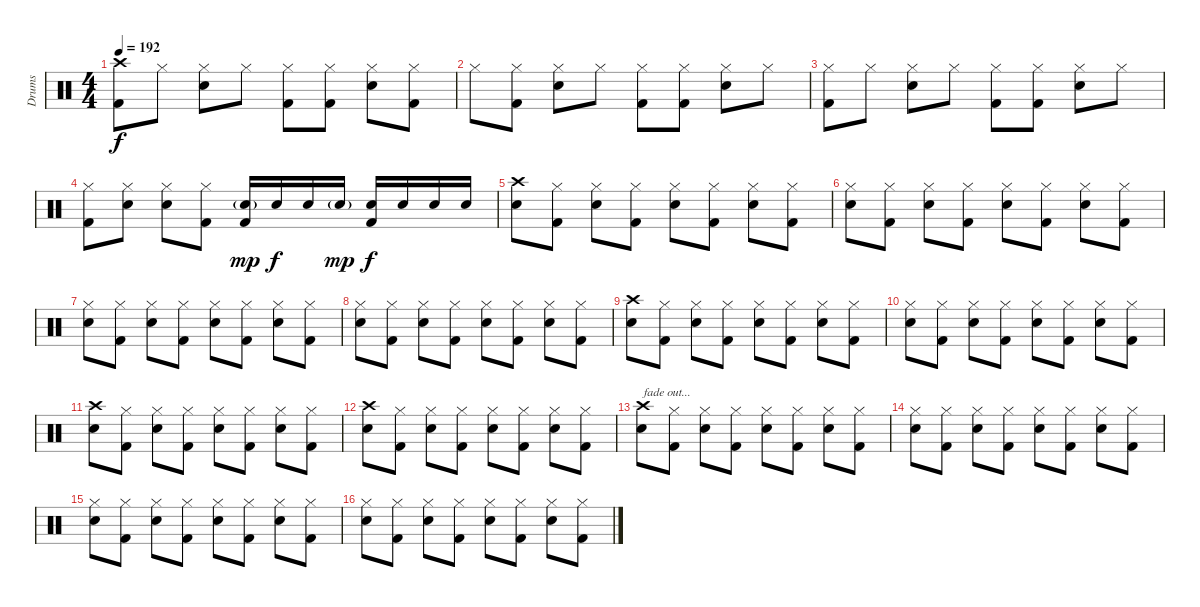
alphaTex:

\track ("Drums" "Drums") {instrument percussion}
\staff {score}
\articulation defaults
\ts (4 4)
\tempo 192
\clef neutral
\ks c
("Crash high (hit)" "Kick (hit) 2").8{dy f} "Hi-Hat (closed)".8 ("Hi-Hat (closed)" "Electric Snare (hit)").8 "Hi-Hat (closed)".8 ("Hi-Hat (closed)" "Kick (hit) 2").8 ("Hi-Hat (closed)" "Kick (hit) 2").8 ("Hi-Hat (closed)" "Electric Snare (hit)").8 ("Hi-Hat (closed)" "Kick (hit) 2").8 |
"Hi-Hat (closed)".8 ("Hi-Hat (closed)" "Kick (hit) 2").8 ("Hi-Hat (closed)" "Electric Snare (hit)").8 "Hi-Hat (closed)".8 ("Hi-Hat (closed)" "Kick (hit) 2").8 ("Hi-Hat (closed)" "Kick (hit) 2").8 ("Hi-Hat (closed)" "Electric Snare (hit)").8 "Hi-Hat (closed)".8 |
("Hi-Hat (closed)" "Kick (hit) 2").8 "Hi-Hat (closed)".8 ("Hi-Hat (closed)" "Electric Snare (hit)").8 "Hi-Hat (closed)".8 ("Hi-Hat (closed)" "Kick (hit) 2").8 ("Hi-Hat (closed)" "Kick (hit) 2").8 ("Hi-Hat (closed)" "Electric Snare (hit)").8 "Hi-Hat (closed)".8 |
("Hi-Hat (closed)" "Kick (hit) 2").8 ("Hi-Hat (closed)" "Electric Snare (hit)").8 ("Hi-Hat (closed)" "Electric Snare (hit)").8 ("Hi-Hat (closed)" "Kick (hit) 2").8 ("Electric Snare (hit)"{g} "Kick (hit) 2").16{dy mp} "Electric Snare (hit)".16{dy f} "Electric Snare (hit)".16 "Electric Snare (hit)"{g}.16{dy mp} ("Electric Snare (hit)" "Kick (hit) 2").16{dy f} "Electric Snare (hit)".16 "Electric Snare (hit)".16 "Electric Snare (hit)".16 |
("Crash high (hit)" "Electric Snare (hit)").8 ("Hi-Hat (closed)" "Kick (hit) 2").8 ("Hi-Hat (closed)" "Electric Snare (hit)").8 ("Hi-Hat (closed)" "Kick (hit) 2").8 ("Hi-Hat (closed)" "Electric Snare (hit)").8 ("Hi-Hat (closed)" "Kick (hit) 2").8 ("Hi-Hat (closed)" "Electric Snare (hit)").8 ("Hi-Hat (closed)" "Kick (hit) 2").8 |
("Hi-Hat (closed)" "Electric Snare (hit)").8 ("Hi-Hat (closed)" "Kick (hit) 2").8 ("Hi-Hat (closed)" "Electric Snare (hit)").8 ("Hi-Hat (closed)" "Kick (hit) 2").8 ("Hi-Hat (closed)" "Electric Snare (hit)").8 ("Hi-Hat (closed)" "Kick (hit) 2").8 ("Hi-Hat (closed)" "Electric Snare (hit)").8 ("Hi-Hat (closed)" "Kick (hit) 2").8 |
("Hi-Hat (closed)" "Electric Snare (hit)").8 ("Hi-Hat (closed)" "Kick (hit) 2").8 ("Hi-Hat (closed)" "Electric Snare (hit)").8 ("Hi-Hat (closed)" "Kick (hit) 2").8 ("Hi-Hat (closed)" "Electric Snare (hit)").8 ("Hi-Hat (closed)" "Kick (hit) 2").8 ("Hi-Hat (closed)" "Electric Snare (hit)").8 ("Hi-Hat (closed)" "Kick (hit) 2").8 |
("Hi-Hat (closed)" "Electric Snare (hit)").8 ("Hi-Hat (closed)" "Kick (hit) 2").8 ("Hi-Hat (closed)" "Electric Snare (hit)").8 ("Hi-Hat (closed)" "Kick (hit) 2").8 ("Hi-Hat (closed)" "Electric Snare (hit)").8 ("Hi-Hat (closed)" "Kick (hit) 2").8 ("Hi-Hat (closed)" "Electric Snare (hit)").8 ("Hi-Hat (closed)" "Kick (hit) 2").8 |
("Crash high (hit)" "Electric Snare (hit)").8 ("Hi-Hat (closed)" "Kick (hit) 2").8 ("Hi-Hat (closed)" "Electric Snare (hit)").8 ("Hi-Hat (closed)" "Kick (hit) 2").8 ("Hi-Hat (closed)" "Electric Snare (hit)").8 ("Hi-Hat (closed)" "Kick (hit) 2").8 ("Hi-Hat (closed)" "Electric Snare (hit)").8 ("Hi-Hat (closed)" "Kick (hit) 2").8 |
("Hi-Hat (closed)" "Electric Snare (hit)").8 ("Hi-Hat (closed)" "Kick (hit) 2").8 ("Hi-Hat (closed)" "Electric Snare (hit)").8 ("Hi-Hat (closed)" "Kick (hit) 2").8 ("Hi-Hat (closed)" "Electric Snare (hit)").8 ("Hi-Hat (closed)" "Kick (hit) 2").8 ("Hi-Hat (closed)" "Electric Snare (hit)").8 ("Hi-Hat (closed)" "Kick (hit) 2").8 |
("Crash high (hit)" "Electric Snare (hit)").8 ("Hi-Hat (closed)" "Kick (hit) 2").8 ("Hi-Hat (closed)" "Electric Snare (hit)").8 ("Hi-Hat (closed)" "Kick (hit) 2").8 ("Hi-Hat (closed)" "Electric Snare (hit)").8 ("Hi-Hat (closed)" "Kick (hit) 2").8 ("Hi-Hat (closed)" "Electric Snare (hit)").8 ("Hi-Hat (closed)" "Kick (hit) 2").8 |
("Crash high (hit)" "Electric Snare (hit)").8 ("Hi-Hat (closed)" "Kick (hit) 2").8 ("Hi-Hat (closed)" "Electric Snare (hit)").8 ("Hi-Hat (closed)" "Kick (hit) 2").8 ("Hi-Hat (closed)" "Electric Snare (hit)").8 ("Hi-Hat (closed)" "Kick (hit) 2").8 ("Hi-Hat (closed)" "Electric Snare (hit)").8 ("Hi-Hat (closed)" "Kick (hit) 2").8 |
("Crash high (hit)" "Electric Snare (hit)").8{txt "fade out..." volume 9} ("Hi-Hat (closed)" "Kick (hit) 2").8 ("Hi-Hat (closed)" "Electric Snare (hit)").8 ("Hi-Hat (closed)" "Kick (hit) 2").8 ("Hi-Hat (closed)" "Electric Snare (hit)").8 ("Hi-Hat (closed)" "Kick (hit) 2").8 ("Hi-Hat (closed)" "Electric Snare (hit)").8 ("Hi-Hat (closed)" "Kick (hit) 2").8 |
("Hi-Hat (closed)" "Electric Snare (hit)").8 ("Hi-Hat (closed)" "Kick (hit) 2").8 ("Hi-Hat (closed)" "Electric Snare (hit)").8 ("Hi-Hat (closed)" "Kick (hit) 2").8 ("Hi-Hat (closed)" "Electric Snare (hit)").8 ("Hi-Hat (closed)" "Kick (hit) 2").8 ("Hi-Hat (closed)" "Electric Snare (hit)").8 ("Hi-Hat (closed)" "Kick (hit) 2").8 |
("Hi-Hat (closed)" "Electric Snare (hit)").8 ("Hi-Hat (closed)" "Kick (hit) 2").8 ("Hi-Hat (closed)" "Electric Snare (hit)").8 ("Hi-Hat (closed)" "Kick (hit) 2").8 ("Hi-Hat (closed)" "Electric Snare (hit)").8 ("Hi-Hat (closed)" "Kick (hit) 2").8 ("Hi-Hat (closed)" "Electric Snare (hit)").8 ("Hi-Hat (closed)" "Kick (hit) 2").8 |
("Hi-Hat (closed)" "Electric Snare (hit)").8 ("Hi-Hat (closed)" "Kick (hit) 2").8 ("Hi-Hat (closed)" "Electric Snare (hit)").8 ("Hi-Hat (closed)" "Kick (hit) 2").8 ("Hi-Hat (closed)" "Electric Snare (hit)").8 ("Hi-Hat (closed)" "Kick (hit) 2").8 ("Hi-Hat (closed)" "Electric Snare (hit)").8 ("Hi-Hat (closed)" "Kick (hit) 2").8
